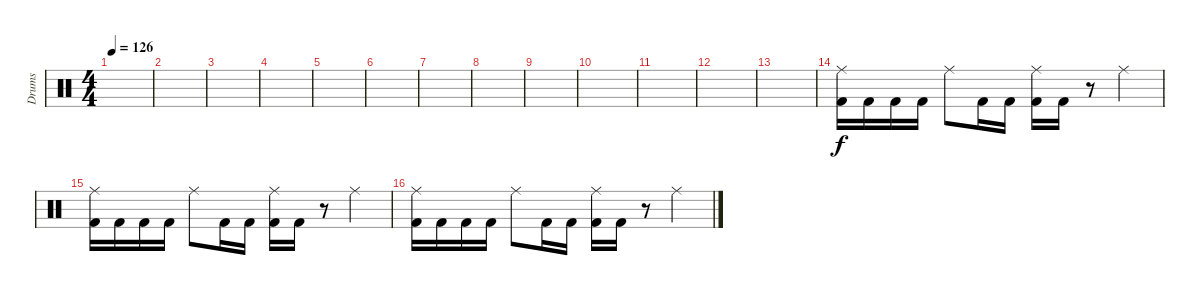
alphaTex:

\track ("Drums" "Drums") {instrument percussion}
\staff {score}
\articulation defaults
\ts (4 4)
\tempo 126
\clef neutral
\ks c
|
|
|
|
|
|
|
|
|
|
|
|
|
("Ride (middle)" "Kick (hit) 2").16 "Kick (hit) 2".16 "Kick (hit) 2".16 "Kick (hit) 2".16 "Ride (middle)".8 "Kick (hit) 2".16 "Kick (hit) 2".16 ("Ride (middle)" "Kick (hit) 2").16 "Kick (hit) 2".16 r.8 "Ride (middle)".4 |
("Ride (middle)" "Kick (hit) 2").16 "Kick (hit) 2".16 "Kick (hit) 2".16 "Kick (hit) 2".16 "Ride (middle)".8 "Kick (hit) 2".16 "Kick (hit) 2".16 ("Ride (middle)" "Kick (hit) 2").16 "Kick (hit) 2".16 r.8 "Ride (middle)".4 |
("Ride (middle)" "Kick (hit) 2").16 "Kick (hit) 2".16 "Kick (hit) 2".16 "Kick (hit) 2".16 "Ride (middle)".8 "Kick (hit) 2".16 "Kick (hit) 2".16 ("Ride (middle)" "Kick (hit) 2").16 "Kick (hit) 2".16 r.8 "Ride (middle)".4
